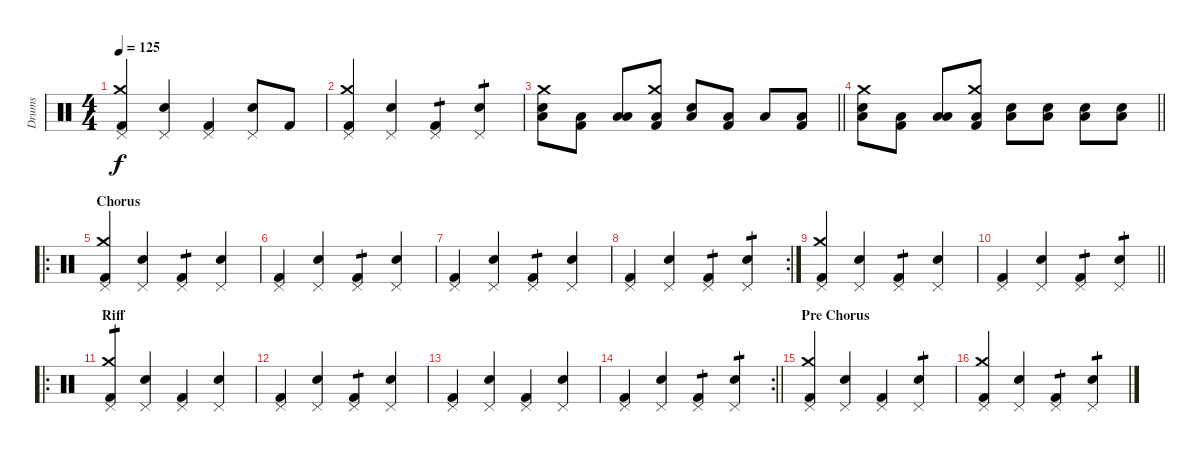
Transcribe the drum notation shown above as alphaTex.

\track ("Drums" "Drums") {instrument percussion}
\staff {score}
\articulation defaults
\ts (4 4)
\tempo 125
\clef neutral
\ks c
("Kick (hit) 2" "Crash medium (hit)" "Pedal Hi-Hat (hit)").4{dy f} ("Snare (hit) 2" "Pedal Hi-Hat (hit)").4 ("Kick (hit) 2" "Pedal Hi-Hat (hit)").4 ("Snare (hit) 2" "Pedal Hi-Hat (hit)").8 "Kick (hit) 2".8 |
("Kick (hit) 2" "Crash medium (hit)" "Pedal Hi-Hat (hit)").4 ("Snare (hit) 2" "Pedal Hi-Hat (hit)").4 ("Kick (hit) 2" "Pedal Hi-Hat (hit)").4{tp 1} ("Snare (hit) 2" "Pedal Hi-Hat (hit)").4{tp 1} |
\barLineRight lightlight
("Snare (hit) 2" "Low Floor Tom (hit)" "Crash medium (hit)").8 ("Kick (hit) 2" "Low Floor Tom (hit)").8 ("Low Floor Tom (hit)" "Low Floor Tom (hit)").8 ("Kick (hit) 2" "Low Floor Tom (hit)" "Crash medium (hit)").8 ("Snare (hit) 2" "Low Floor Tom (hit)").8 ("Kick (hit) 2" "Low Floor Tom (hit)").8 "Low Floor Tom (hit)".8 ("Kick (hit) 2" "Low Floor Tom (hit)").8 |
\barLineRight lightlight
("Snare (hit) 2" "Low Floor Tom (hit)" "Crash medium (hit)").8 ("Kick (hit) 2" "Low Floor Tom (hit)").8 ("Low Floor Tom (hit)" "Low Floor Tom (hit)").8 ("Kick (hit) 2" "Low Floor Tom (hit)" "Crash medium (hit)").8 ("Snare (hit) 2" "Low Floor Tom (hit)").8 ("Snare (hit) 2" "Low Floor Tom (hit)").8 ("Snare (hit) 2" "Low Floor Tom (hit)").8 ("Snare (hit) 2" "Low Floor Tom (hit)").8 |
\ro
\section ("" "Chorus")
("Kick (hit) 2" "Crash medium (hit)" "Pedal Hi-Hat (hit)").4 ("Snare (hit) 2" "Pedal Hi-Hat (hit)").4 ("Kick (hit) 2" "Pedal Hi-Hat (hit)").4{tp 1} ("Snare (hit) 2" "Pedal Hi-Hat (hit)").4 |
("Kick (hit) 2" "Pedal Hi-Hat (hit)").4 ("Snare (hit) 2" "Pedal Hi-Hat (hit)").4 ("Kick (hit) 2" "Pedal Hi-Hat (hit)").4{tp 1} ("Snare (hit) 2" "Pedal Hi-Hat (hit)").4 |
("Kick (hit) 2" "Pedal Hi-Hat (hit)").4 ("Snare (hit) 2" "Pedal Hi-Hat (hit)").4 ("Kick (hit) 2" "Pedal Hi-Hat (hit)").4{tp 1} ("Snare (hit) 2" "Pedal Hi-Hat (hit)").4 |
\rc 2
("Kick (hit) 2" "Pedal Hi-Hat (hit)").4 ("Snare (hit) 2" "Pedal Hi-Hat (hit)").4 ("Kick (hit) 2" "Pedal Hi-Hat (hit)").4{tp 1} ("Snare (hit) 2" "Pedal Hi-Hat (hit)").4{tp 1} |
("Kick (hit) 2" "Crash medium (hit)" "Pedal Hi-Hat (hit)").4 ("Snare (hit) 2" "Pedal Hi-Hat (hit)").4 ("Kick (hit) 2" "Pedal Hi-Hat (hit)").4{tp 1} ("Snare (hit) 2" "Pedal Hi-Hat (hit)").4 |
\barLineRight lightlight
("Kick (hit) 2" "Pedal Hi-Hat (hit)").4 ("Snare (hit) 2" "Pedal Hi-Hat (hit)").4 ("Kick (hit) 2" "Pedal Hi-Hat (hit)").4{tp 1} ("Snare (hit) 2" "Pedal Hi-Hat (hit)").4{tp 1} |
\ro
\section ("" "Riff")
("Kick (hit) 2" "Crash medium (hit)" "Pedal Hi-Hat (hit)").4{tp 1} ("Snare (hit) 2" "Pedal Hi-Hat (hit)").4 ("Kick (hit) 2" "Pedal Hi-Hat (hit)").4 ("Snare (hit) 2" "Pedal Hi-Hat (hit)").4 |
("Kick (hit) 2" "Pedal Hi-Hat (hit)").4 ("Snare (hit) 2" "Pedal Hi-Hat (hit)").4 ("Kick (hit) 2" "Pedal Hi-Hat (hit)").4{tp 1} ("Snare (hit) 2" "Pedal Hi-Hat (hit)").4 |
("Kick (hit) 2" "Pedal Hi-Hat (hit)").4 ("Snare (hit) 2" "Pedal Hi-Hat (hit)").4 ("Kick (hit) 2" "Pedal Hi-Hat (hit)").4 ("Snare (hit) 2" "Pedal Hi-Hat (hit)").4 |
\rc 2
\barLineRight lightlight
("Kick (hit) 2" "Pedal Hi-Hat (hit)").4 ("Snare (hit) 2" "Pedal Hi-Hat (hit)").4 ("Kick (hit) 2" "Pedal Hi-Hat (hit)").4{tp 1} ("Snare (hit) 2" "Pedal Hi-Hat (hit)").4{tp 1} |
\section ("" "Pre Chorus")
("Kick (hit) 2" "Crash medium (hit)" "Pedal Hi-Hat (hit)").4 ("Snare (hit) 2" "Pedal Hi-Hat (hit)").4 ("Kick (hit) 2" "Pedal Hi-Hat (hit)").4 ("Snare (hit) 2" "Pedal Hi-Hat (hit)").4{tp 1} |
("Kick (hit) 2" "Crash medium (hit)" "Pedal Hi-Hat (hit)").4 ("Snare (hit) 2" "Pedal Hi-Hat (hit)").4 ("Kick (hit) 2" "Pedal Hi-Hat (hit)").4{tp 1} ("Snare (hit) 2" "Pedal Hi-Hat (hit)").4{tp 1}
